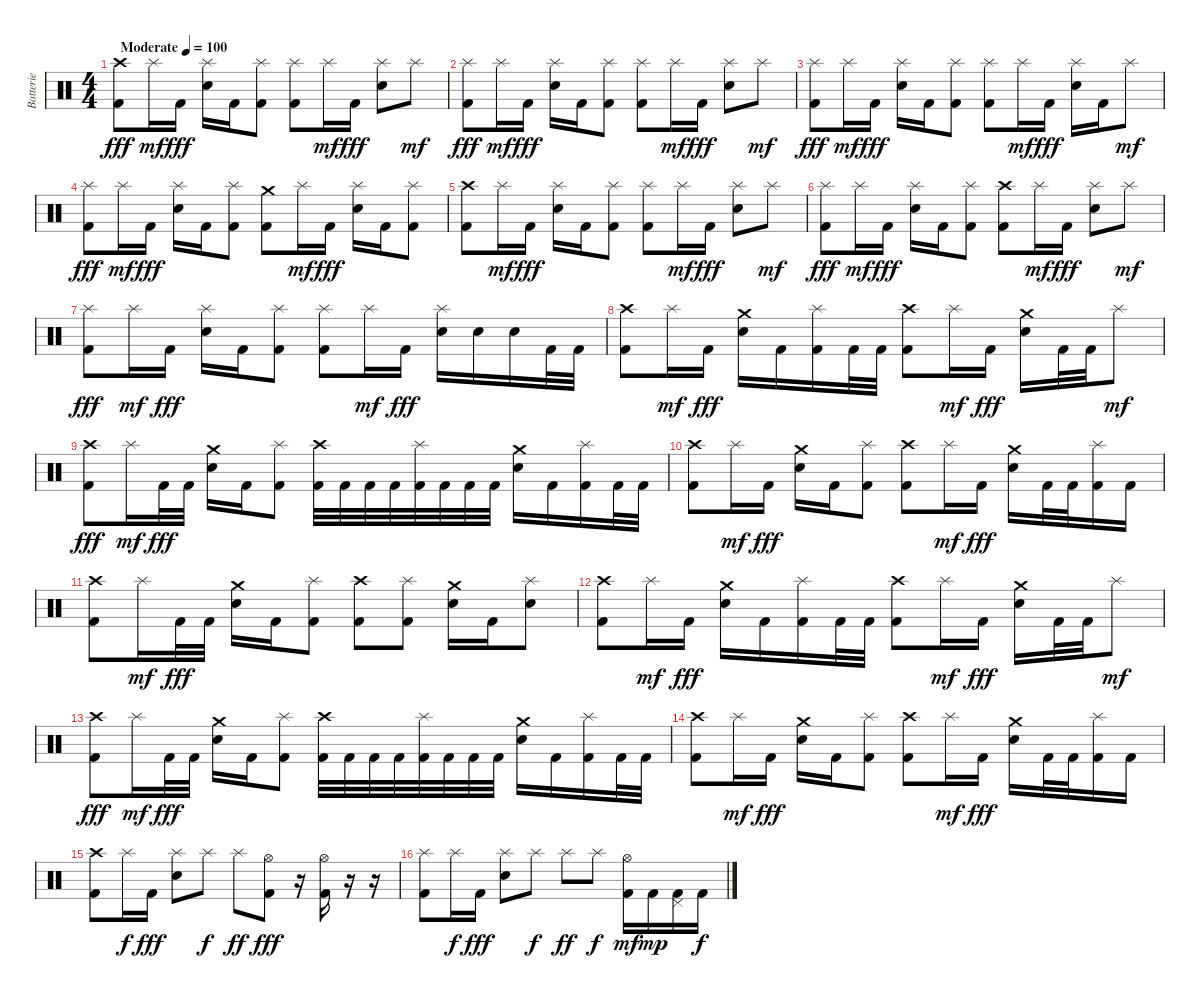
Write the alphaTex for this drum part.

\track ("Batterie" "Batterie") {instrument percussion}
\staff {score}
\articulation defaults
\ts (4 4)
\tempo (100 "Moderate")
\clef neutral
\ks c
("Crash high (hit)" "Kick (hit) 2").8{dy fff} "Splash (hit)".16{dy mf} "Kick (hit) 2".16{dy fff} ("Splash (hit)" "Electric Snare (hit)").16 "Kick (hit) 2".16 ("Splash (hit)" "Kick (hit) 2").8 ("Splash (hit)" "Kick (hit) 2").8 "Splash (hit)".16{dy mf} "Kick (hit) 2".16{dy fff} ("Splash (hit)" "Electric Snare (hit)").8 "Splash (hit)".8{dy mf} |
("Splash (hit)" "Kick (hit) 2").8{dy fff} "Splash (hit)".16{dy mf} "Kick (hit) 2".16{dy fff} ("Splash (hit)" "Electric Snare (hit)").16 "Kick (hit) 2".16 ("Splash (hit)" "Kick (hit) 2").8 ("Splash (hit)" "Kick (hit) 2").8 "Splash (hit)".16{dy mf} "Kick (hit) 2".16{dy fff} ("Splash (hit)" "Electric Snare (hit)").8 "Splash (hit)".8{dy mf} |
("Splash (hit)" "Kick (hit) 2").8{dy fff} "Splash (hit)".16{dy mf} "Kick (hit) 2".16{dy fff} ("Splash (hit)" "Electric Snare (hit)").16 "Kick (hit) 2".16 ("Splash (hit)" "Kick (hit) 2").8 ("Splash (hit)" "Kick (hit) 2").8 "Splash (hit)".16{dy mf} "Kick (hit) 2".16{dy fff} ("Splash (hit)" "Electric Snare (hit)").16 "Kick (hit) 2".16 "Splash (hit)".8{dy mf} |
("Splash (hit)" "Kick (hit) 2").8{dy fff} "Splash (hit)".16{dy mf} "Kick (hit) 2".16{dy fff} ("Splash (hit)" "Electric Snare (hit)").16 "Kick (hit) 2".16 ("Splash (hit)" "Kick (hit) 2").8 ("Crash medium (hit)" "Kick (hit) 2").8 "Splash (hit)".16{dy mf} "Kick (hit) 2".16{dy fff} ("Splash (hit)" "Electric Snare (hit)").16 "Kick (hit) 2".16 ("Splash (hit)" "Kick (hit) 2").8 |
("Crash high (hit)" "Kick (hit) 2").8 "Splash (hit)".16{dy mf} "Kick (hit) 2".16{dy fff} ("Splash (hit)" "Electric Snare (hit)").16 "Kick (hit) 2".16 ("Splash (hit)" "Kick (hit) 2").8 ("Splash (hit)" "Kick (hit) 2").8 "Splash (hit)".16{dy mf} "Kick (hit) 2".16{dy fff} ("Splash (hit)" "Electric Snare (hit)").8 "Splash (hit)".8{dy mf} |
("Splash (hit)" "Kick (hit) 2").8{dy fff} "Splash (hit)".16{dy mf} "Kick (hit) 2".16{dy fff} ("Splash (hit)" "Electric Snare (hit)").16 "Kick (hit) 2".16 ("Splash (hit)" "Kick (hit) 2").8 ("Crash high (hit)" "Kick (hit) 2").8 "Splash (hit)".16{dy mf} "Kick (hit) 2".16{dy fff} ("Splash (hit)" "Electric Snare (hit)").8 "Splash (hit)".8{dy mf} |
("Splash (hit)" "Kick (hit) 2").8{dy fff} "Splash (hit)".16{dy mf} "Kick (hit) 2".16{dy fff} ("Splash (hit)" "Electric Snare (hit)").16 "Kick (hit) 2".16 ("Splash (hit)" "Kick (hit) 2").8 ("Splash (hit)" "Kick (hit) 2").8 "Splash (hit)".16{dy mf} "Kick (hit) 2".16{dy fff} ("Splash (hit)" "Electric Snare (hit)").16 "Electric Snare (hit)".16 "Electric Snare (hit)".16 "Kick (hit) 2".32 "Kick (hit) 2".32 |
("Crash high (hit)" "Kick (hit) 2").8 "Splash (hit)".16{dy mf} "Kick (hit) 2".16{dy fff} ("Crash medium (hit)" "Electric Snare (hit)").16 "Kick (hit) 2".16 ("Splash (hit)" "Kick (hit) 2").16 "Kick (hit) 2".32 "Kick (hit) 2".32 ("Crash high (hit)" "Kick (hit) 2").8 "Splash (hit)".16{dy mf} "Kick (hit) 2".16{dy fff} ("Crash medium (hit)" "Electric Snare (hit)").16 "Kick (hit) 2".32 "Kick (hit) 2".32 "Splash (hit)".8{dy mf} |
("Crash high (hit)" "Kick (hit) 2").8{dy fff} "Splash (hit)".16{dy mf} "Kick (hit) 2".32{dy fff} "Kick (hit) 2".32 ("Crash medium (hit)" "Electric Snare (hit)").16 "Kick (hit) 2".16 ("Splash (hit)" "Kick (hit) 2").8 ("Crash high (hit)" "Kick (hit) 2").32 "Kick (hit) 2".32 "Kick (hit) 2".32 "Kick (hit) 2".32 ("Splash (hit)" "Kick (hit) 2").32 "Kick (hit) 2".32 "Kick (hit) 2".32 "Kick (hit) 2".32 ("Crash medium (hit)" "Electric Snare (hit)").16 "Kick (hit) 2".16 ("Splash (hit)" "Kick (hit) 2").16 "Kick (hit) 2".32 "Kick (hit) 2".32 |
("Crash high (hit)" "Kick (hit) 2").8 "Splash (hit)".16{dy mf} "Kick (hit) 2".16{dy fff} ("Crash medium (hit)" "Electric Snare (hit)").16 "Kick (hit) 2".16 ("Splash (hit)" "Kick (hit) 2").8 ("Crash high (hit)" "Kick (hit) 2").8 "Splash (hit)".16{dy mf} "Kick (hit) 2".16{dy fff} ("Crash medium (hit)" "Electric Snare (hit)").16 "Kick (hit) 2".32 "Kick (hit) 2".32 ("Splash (hit)" "Kick (hit) 2").16 "Kick (hit) 2".16 |
("Crash high (hit)" "Kick (hit) 2").8 "Splash (hit)".16{dy mf} "Kick (hit) 2".32{dy fff} "Kick (hit) 2".32 ("Crash medium (hit)" "Electric Snare (hit)").16 "Kick (hit) 2".16 ("Splash (hit)" "Kick (hit) 2").8 ("Crash high (hit)" "Kick (hit) 2").8 ("Splash (hit)" "Kick (hit) 2").8 ("Crash medium (hit)" "Electric Snare (hit)").16 "Kick (hit) 2".16 ("Splash (hit)" "Electric Snare (hit)").8 |
("Crash high (hit)" "Kick (hit) 2").8 "Splash (hit)".16{dy mf} "Kick (hit) 2".16{dy fff} ("Crash medium (hit)" "Electric Snare (hit)").16 "Kick (hit) 2".16 ("Splash (hit)" "Kick (hit) 2").16 "Kick (hit) 2".32 "Kick (hit) 2".32 ("Crash high (hit)" "Kick (hit) 2").8 "Splash (hit)".16{dy mf} "Kick (hit) 2".16{dy fff} ("Crash medium (hit)" "Electric Snare (hit)").16 "Kick (hit) 2".32 "Kick (hit) 2".32 "Splash (hit)".8{dy mf} |
("Crash high (hit)" "Kick (hit) 2").8{dy fff} "Splash (hit)".16{dy mf} "Kick (hit) 2".32{dy fff} "Kick (hit) 2".32 ("Crash medium (hit)" "Electric Snare (hit)").16 "Kick (hit) 2".16 ("Splash (hit)" "Kick (hit) 2").8 ("Crash high (hit)" "Kick (hit) 2").32 "Kick (hit) 2".32 "Kick (hit) 2".32 "Kick (hit) 2".32 ("Splash (hit)" "Kick (hit) 2").32 "Kick (hit) 2".32 "Kick (hit) 2".32 "Kick (hit) 2".32 ("Crash medium (hit)" "Electric Snare (hit)").16 "Kick (hit) 2".16 ("Splash (hit)" "Kick (hit) 2").16 "Kick (hit) 2".32 "Kick (hit) 2".32 |
("Crash high (hit)" "Kick (hit) 2").8 "Splash (hit)".16{dy mf} "Kick (hit) 2".16{dy fff} ("Crash medium (hit)" "Electric Snare (hit)").16 "Kick (hit) 2".16 ("Splash (hit)" "Kick (hit) 2").8 ("Crash high (hit)" "Kick (hit) 2").8 "Splash (hit)".16{dy mf} "Kick (hit) 2".16{dy fff} ("Crash medium (hit)" "Electric Snare (hit)").16 "Kick (hit) 2".32 "Kick (hit) 2".32 ("Splash (hit)" "Kick (hit) 2").16 "Kick (hit) 2".16 |
("Crash high (hit)" "Kick (hit) 2").8 "Splash (hit)".16{dy f} "Kick (hit) 2".16{dy fff} ("Splash (hit)" "Electric Snare (hit)").8 "Splash (hit)".8{dy f} "Splash (hit)".8{dy ff} ("Hi-Hat (open)" "Kick (hit) 2").8{dy fff} r.16 ("Hi-Hat (open)" "Kick (hit) 2").16 r.16 r.16 |
("Splash (hit)" "Kick (hit) 2").8 "Splash (hit)".16{dy f} "Kick (hit) 2".16{dy fff} ("Splash (hit)" "Electric Snare (hit)").8 "Splash (hit)".8{dy f} "Splash (hit)".8{dy ff} "Splash (hit)".8{dy f} ("Hi-Hat (open)" "Kick (hit) 2").16{dy mf} "Kick (hit) 2".16{dy mp} ("Pedal Hi-Hat (hit)" "Kick (hit) 2").16 "Kick (hit) 2".16{dy f}
